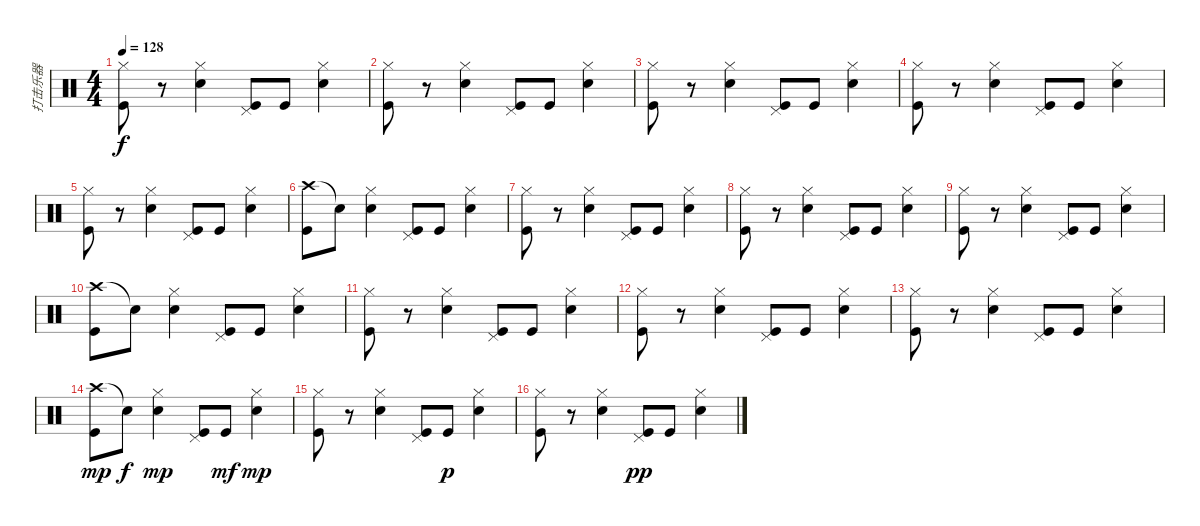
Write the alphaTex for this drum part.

\track ("打击乐器" "打击乐器") {instrument percussion}
\staff {score}
\articulation defaults
\ts (4 4)
\tempo 128
\clef neutral
\ks c
("Hi-Hat (closed)" "Kick (hit)").8{dy f} r.8 ("Hi-Hat (closed)" "Snare (hit) 2").4 ("Pedal Hi-Hat (hit)" "Kick (hit)").8 "Kick (hit)".8 ("Hi-Hat (closed)" "Snare (hit) 2").4 |
("Hi-Hat (closed)" "Kick (hit)").8 r.8 ("Hi-Hat (closed)" "Snare (hit) 2").4 ("Pedal Hi-Hat (hit)" "Kick (hit)").8 "Kick (hit)".8 ("Hi-Hat (closed)" "Snare (hit) 2").4 |
("Hi-Hat (closed)" "Kick (hit)").8 r.8 ("Hi-Hat (closed)" "Snare (hit) 2").4 ("Pedal Hi-Hat (hit)" "Kick (hit)").8 "Kick (hit)".8 ("Hi-Hat (closed)" "Snare (hit) 2").4 |
("Hi-Hat (closed)" "Kick (hit)").8 r.8 ("Hi-Hat (closed)" "Snare (hit) 2").4 ("Pedal Hi-Hat (hit)" "Kick (hit)").8 "Kick (hit)".8 ("Hi-Hat (closed)" "Snare (hit) 2").4 |
("Hi-Hat (closed)" "Kick (hit)").8 r.8 ("Hi-Hat (closed)" "Snare (hit) 2").4 ("Pedal Hi-Hat (hit)" "Kick (hit)").8 "Kick (hit)".8 ("Hi-Hat (closed)" "Snare (hit) 2").4 |
("Crash high (hit)" "Kick (hit)").8 "Snare (hit)"{t}.8 ("Hi-Hat (closed)" "Snare (hit) 2").4 ("Pedal Hi-Hat (hit)" "Kick (hit)").8 "Kick (hit)".8 ("Hi-Hat (closed)" "Snare (hit) 2").4 |
("Hi-Hat (closed)" "Kick (hit)").8 r.8 ("Hi-Hat (closed)" "Snare (hit) 2").4 ("Pedal Hi-Hat (hit)" "Kick (hit)").8 "Kick (hit)".8 ("Hi-Hat (closed)" "Snare (hit) 2").4 |
("Hi-Hat (closed)" "Kick (hit)").8 r.8 ("Hi-Hat (closed)" "Snare (hit) 2").4 ("Pedal Hi-Hat (hit)" "Kick (hit)").8 "Kick (hit)".8 ("Hi-Hat (closed)" "Snare (hit) 2").4 |
("Hi-Hat (closed)" "Kick (hit)").8 r.8 ("Hi-Hat (closed)" "Snare (hit) 2").4 ("Pedal Hi-Hat (hit)" "Kick (hit)").8 "Kick (hit)".8 ("Hi-Hat (closed)" "Snare (hit) 2").4 |
("Crash high (hit)" "Kick (hit)").8 "Snare (hit)"{t}.8 ("Hi-Hat (closed)" "Snare (hit) 2").4 ("Pedal Hi-Hat (hit)" "Kick (hit)").8 "Kick (hit)".8 ("Hi-Hat (closed)" "Snare (hit) 2").4 |
("Hi-Hat (closed)" "Kick (hit)").8 r.8 ("Hi-Hat (closed)" "Snare (hit) 2").4 ("Pedal Hi-Hat (hit)" "Kick (hit)").8 "Kick (hit)".8 ("Hi-Hat (closed)" "Snare (hit) 2").4 |
("Hi-Hat (closed)" "Kick (hit)").8 r.8 ("Hi-Hat (closed)" "Snare (hit) 2").4 ("Pedal Hi-Hat (hit)" "Kick (hit)").8 "Kick (hit)".8 ("Hi-Hat (closed)" "Snare (hit) 2").4 |
("Hi-Hat (closed)" "Kick (hit)").8 r.8 ("Hi-Hat (closed)" "Snare (hit) 2").4 ("Pedal Hi-Hat (hit)" "Kick (hit)").8 "Kick (hit)".8 ("Hi-Hat (closed)" "Snare (hit) 2").4 |
("Crash high (hit)" "Kick (hit)").8{dy mp} "Snare (hit)"{t}.8{dy f} ("Hi-Hat (closed)" "Snare (hit) 2").4{dy mp} ("Pedal Hi-Hat (hit)" "Kick (hit)").8 "Kick (hit)".8{dy mf} ("Hi-Hat (closed)" "Snare (hit) 2").4{dy mp} |
("Hi-Hat (closed)" "Kick (hit)").8 r.8 ("Hi-Hat (closed)" "Snare (hit) 2").4 ("Pedal Hi-Hat (hit)" "Kick (hit)").8 "Kick (hit)".8{dy p} ("Hi-Hat (closed)" "Snare (hit) 2").4 |
("Hi-Hat (closed)" "Kick (hit)").8 r.8 ("Hi-Hat (closed)" "Snare (hit) 2").4 ("Pedal Hi-Hat (hit)" "Kick (hit)").8{dy pp} "Kick (hit)".8 ("Hi-Hat (closed)" "Snare (hit) 2").4
